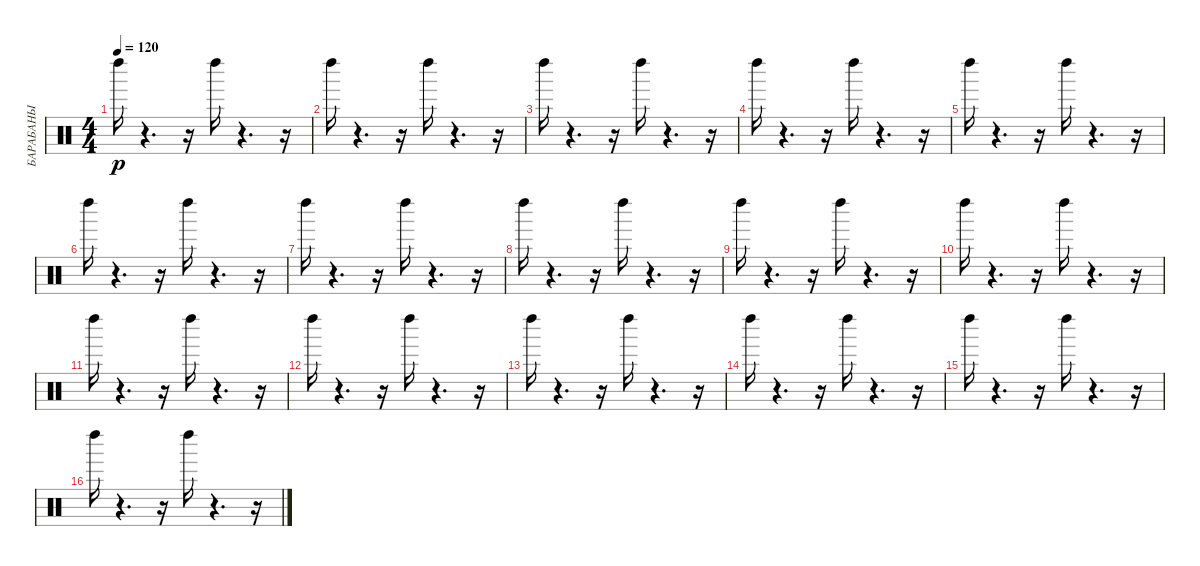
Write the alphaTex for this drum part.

\track ("БАРАБАНЫ" "БАРАБАНЫ") {instrument percussion}
\staff {score}
\articulation defaults
\ts (4 4)
\tempo 120
\clef neutral
\ks c "Left Maraca (hit)".16{dy p}
r.4{d} r.16 "Left Maraca (hit)".16 r.4{d} r.16 |
"Left Maraca (hit)".16 r.4{d} r.16 "Left Maraca (hit)".16 r.4{d} r.16 |
"Left Maraca (hit)".16 r.4{d} r.16 "Left Maraca (hit)".16 r.4{d} r.16 |
"Left Maraca (hit)".16 r.4{d} r.16 "Left Maraca (hit)".16 r.4{d} r.16 |
"Left Maraca (hit)".16 r.4{d} r.16 "Left Maraca (hit)".16 r.4{d} r.16 |
"Left Maraca (hit)".16 r.4{d} r.16 "Left Maraca (hit)".16 r.4{d} r.16 |
"Left Maraca (hit)".16 r.4{d} r.16 "Left Maraca (hit)".16 r.4{d} r.16 |
"Left Maraca (hit)".16 r.4{d} r.16 "Left Maraca (hit)".16 r.4{d} r.16 |
"Left Maraca (hit)".16 r.4{d} r.16 "Left Maraca (hit)".16 r.4{d} r.16 |
"Left Maraca (hit)".16 r.4{d} r.16 "Left Maraca (hit)".16 r.4{d} r.16 |
"Left Maraca (hit)".16 r.4{d} r.16 "Left Maraca (hit)".16 r.4{d} r.16 |
"Left Maraca (hit)".16 r.4{d} r.16 "Left Maraca (hit)".16 r.4{d} r.16 |
"Left Maraca (hit)".16 r.4{d} r.16 "Left Maraca (hit)".16 r.4{d} r.16 |
"Left Maraca (hit)".16 r.4{d} r.16 "Left Maraca (hit)".16 r.4{d} r.16 |
"Left Maraca (hit)".16 r.4{d} r.16 "Left Maraca (hit)".16 r.4{d} r.16 |
"Left Maraca (hit)".16 r.4{d} r.16 "Left Maraca (hit)".16 r.4{d} r.16
